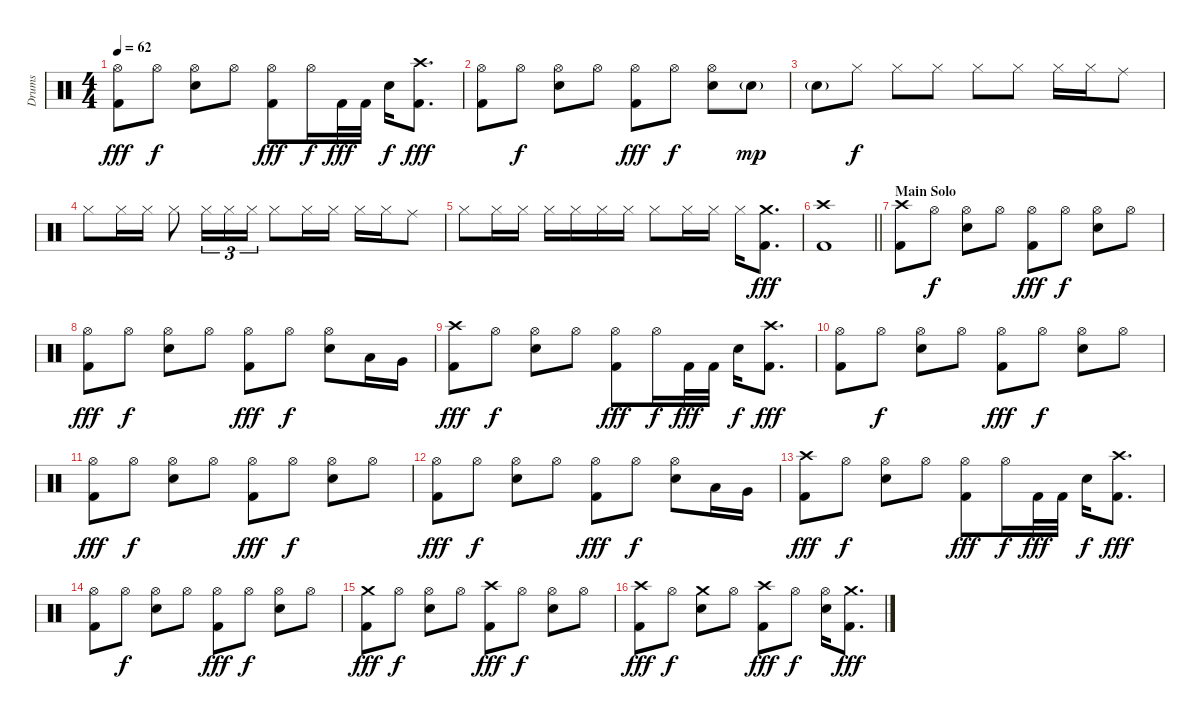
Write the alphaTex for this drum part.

\track ("Drums" "Drums") {instrument percussion}
\staff {score}
\articulation defaults
\ts (4 4)
\tempo 62
\clef neutral
\ks c
("Hi-Hat (open)" "Kick (hit) 2").8{dy fff} "Hi-Hat (open)".8{dy f} ("Hi-Hat (open)" "Snare (hit) 2").8 "Hi-Hat (open)".8 ("Hi-Hat (open)" "Kick (hit) 2").8{dy fff} "Hi-Hat (open)".16{dy f} "Kick (hit) 2".32{dy fff} "Kick (hit) 2".32 "Snare (hit) 2".16{dy f} ("Crash high (hit)" "Kick (hit) 2").8{d dy fff} |
("Hi-Hat (open)" "Kick (hit) 2").8 "Hi-Hat (open)".8{dy f} ("Hi-Hat (open)" "Snare (hit) 2").8 "Hi-Hat (open)".8 ("Hi-Hat (open)" "Kick (hit) 2").8{dy fff} "Hi-Hat (open)".8{dy f} ("Hi-Hat (open)" "Snare (hit) 2").8 "Snare (hit) 2"{g}.8{dy mp} |
"Snare (hit) 2"{g}.8 "Hi-Hat (closed)".8{dy f} "Hi-Hat (closed)".8 "Hi-Hat (closed)".8 "Hi-Hat (closed)".8 "Hi-Hat (closed)".8 "Hi-Hat (closed)".16 "Hi-Hat (closed)".16 "Ride (middle)".8 |
"Hi-Hat (closed)".8 "Hi-Hat (closed)".16 "Hi-Hat (closed)".16 "Hi-Hat (closed)".8 "Hi-Hat (closed)".16{tu (3 2)} "Hi-Hat (closed)".16{tu (3 2)} "Hi-Hat (closed)".16{tu (3 2)} "Hi-Hat (closed)".8 "Hi-Hat (closed)".16 "Hi-Hat (closed)".16 "Hi-Hat (closed)".16 "Hi-Hat (closed)".16 "Ride (middle)".8 |
"Hi-Hat (closed)".8 "Hi-Hat (closed)".16 "Hi-Hat (closed)".16 "Hi-Hat (closed)".16 "Hi-Hat (closed)".16 "Hi-Hat (closed)".16 "Hi-Hat (closed)".16 "Hi-Hat (closed)".8 "Hi-Hat (closed)".16 "Hi-Hat (closed)".16 "Hi-Hat (closed)".16 ("Crash medium (hit)" "Kick (hit) 2").8{d dy fff} |
\barLineRight lightlight
("Crash high (hit)" "Kick (hit) 2").1 |
\section ("" "Main Solo")
("Crash high (hit)" "Kick (hit) 2").8 "Hi-Hat (open)".8{dy f} ("Hi-Hat (open)" "Snare (hit) 2").8 "Hi-Hat (open)".8 ("Hi-Hat (open)" "Kick (hit) 2").8{dy fff} "Hi-Hat (open)".8{dy f} ("Hi-Hat (open)" "Snare (hit) 2").8 "Hi-Hat (open)".8 |
("Hi-Hat (open)" "Kick (hit) 2").8{dy fff} "Hi-Hat (open)".8{dy f} ("Hi-Hat (open)" "Snare (hit) 2").8 "Hi-Hat (open)".8 ("Hi-Hat (open)" "Kick (hit) 2").8{dy fff} "Hi-Hat (open)".8{dy f} ("Hi-Hat (open)" "Snare (hit) 2").8 "Low Tom (hit)".16 "Very Low Tom (hit)".16 |
("Crash high (hit)" "Kick (hit) 2").8{dy fff} "Hi-Hat (open)".8{dy f} ("Hi-Hat (open)" "Snare (hit) 2").8 "Hi-Hat (open)".8 ("Hi-Hat (open)" "Kick (hit) 2").8{dy fff} "Hi-Hat (open)".16{dy f} "Kick (hit) 2".32{dy fff} "Kick (hit) 2".32 "Snare (hit) 2".16{dy f} ("Crash high (hit)" "Kick (hit) 2").8{d dy fff} |
("Hi-Hat (open)" "Kick (hit) 2").8 "Hi-Hat (open)".8{dy f} ("Hi-Hat (open)" "Snare (hit) 2").8 "Hi-Hat (open)".8 ("Hi-Hat (open)" "Kick (hit) 2").8{dy fff} "Hi-Hat (open)".8{dy f} ("Hi-Hat (open)" "Snare (hit) 2").8 "Hi-Hat (open)".8 |
("Hi-Hat (open)" "Kick (hit) 2").8{dy fff} "Hi-Hat (open)".8{dy f} ("Hi-Hat (open)" "Snare (hit) 2").8 "Hi-Hat (open)".8 ("Hi-Hat (open)" "Kick (hit) 2").8{dy fff} "Hi-Hat (open)".8{dy f} ("Hi-Hat (open)" "Snare (hit) 2").8 "Hi-Hat (open)".8 |
("Hi-Hat (open)" "Kick (hit) 2").8{dy fff} "Hi-Hat (open)".8{dy f} ("Hi-Hat (open)" "Snare (hit) 2").8 "Hi-Hat (open)".8 ("Hi-Hat (open)" "Kick (hit) 2").8{dy fff} "Hi-Hat (open)".8{dy f} ("Hi-Hat (open)" "Snare (hit) 2").8 "Low Tom (hit)".16 "Very Low Tom (hit)".16 |
("Crash high (hit)" "Kick (hit) 2").8{dy fff} "Hi-Hat (open)".8{dy f} ("Hi-Hat (open)" "Snare (hit) 2").8 "Hi-Hat (open)".8 ("Hi-Hat (open)" "Kick (hit) 2").8{dy fff} "Hi-Hat (open)".16{dy f} "Kick (hit) 2".32{dy fff} "Kick (hit) 2".32 "Snare (hit) 2".16{dy f} ("Crash high (hit)" "Kick (hit) 2").8{d dy fff} |
("Hi-Hat (open)" "Kick (hit) 2").8 "Hi-Hat (open)".8{dy f} ("Hi-Hat (open)" "Snare (hit) 2").8 "Hi-Hat (open)".8 ("Hi-Hat (open)" "Kick (hit) 2").8{dy fff} "Hi-Hat (open)".8{dy f} ("Hi-Hat (open)" "Snare (hit) 2").8 "Hi-Hat (open)".8 |
("Crash medium (hit)" "Kick (hit) 2").8{dy fff} "Hi-Hat (open)".8{dy f} ("Hi-Hat (open)" "Snare (hit) 2").8 "Hi-Hat (open)".8 ("Crash high (hit)" "Kick (hit) 2").8{dy fff} "Hi-Hat (open)".8{dy f} ("Hi-Hat (open)" "Snare (hit) 2").8 "Hi-Hat (open)".8 |
("Crash high (hit)" "Kick (hit) 2").8{dy fff} "Hi-Hat (open)".8{dy f} ("Crash medium (hit)" "Snare (hit) 2").8 "Hi-Hat (open)".8 ("Crash high (hit)" "Kick (hit) 2").8{dy fff} "Hi-Hat (open)".8{dy f} ("Hi-Hat (open)" "Snare (hit) 2").16 ("Crash medium (hit)" "Kick (hit) 2").8{d dy fff}
